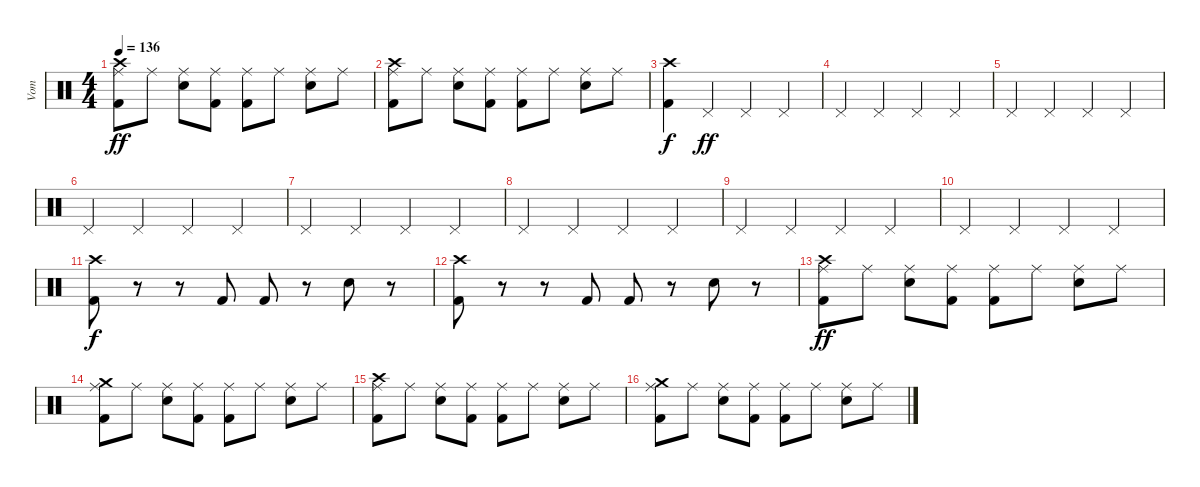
\track ("Vom" "Vom") {instrument percussion}
\staff {score}
\articulation defaults
\ts (4 4)
\tempo 136
\clef neutral
\ks c
("Ride (middle)" "Kick (hit) 2" "Crash high (hit)").8{dy ff} "Ride (middle)".8 ("Ride (middle)" "Snare (hit) 2").8 ("Ride (middle)" "Kick (hit) 2").8 ("Ride (middle)" "Kick (hit) 2").8 "Ride (middle)".8 ("Ride (middle)" "Snare (hit) 2").8 "Ride (middle)".8 |
("Ride (middle)" "Kick (hit) 2" "Crash high (hit)").8 "Ride (middle)".8 ("Ride (middle)" "Snare (hit) 2").8 ("Ride (middle)" "Kick (hit) 2").8 ("Ride (middle)" "Kick (hit) 2").8 "Ride (middle)".8 ("Ride (middle)" "Snare (hit) 2").8 "Ride (middle)".8 |
("Kick (hit) 2" "Crash high (hit)").4{dy f} "Pedal Hi-Hat (hit)".4{dy ff} "Pedal Hi-Hat (hit)".4 "Pedal Hi-Hat (hit)".4 |
"Pedal Hi-Hat (hit)".4 "Pedal Hi-Hat (hit)".4 "Pedal Hi-Hat (hit)".4 "Pedal Hi-Hat (hit)".4 |
"Pedal Hi-Hat (hit)".4 "Pedal Hi-Hat (hit)".4 "Pedal Hi-Hat (hit)".4 "Pedal Hi-Hat (hit)".4 |
"Pedal Hi-Hat (hit)".4 "Pedal Hi-Hat (hit)".4 "Pedal Hi-Hat (hit)".4 "Pedal Hi-Hat (hit)".4 |
"Pedal Hi-Hat (hit)".4 "Pedal Hi-Hat (hit)".4 "Pedal Hi-Hat (hit)".4 "Pedal Hi-Hat (hit)".4 |
"Pedal Hi-Hat (hit)".4 "Pedal Hi-Hat (hit)".4 "Pedal Hi-Hat (hit)".4 "Pedal Hi-Hat (hit)".4 |
"Pedal Hi-Hat (hit)".4 "Pedal Hi-Hat (hit)".4 "Pedal Hi-Hat (hit)".4 "Pedal Hi-Hat (hit)".4 |
"Pedal Hi-Hat (hit)".4 "Pedal Hi-Hat (hit)".4 "Pedal Hi-Hat (hit)".4 "Pedal Hi-Hat (hit)".4 |
("Kick (hit) 2" "Crash high (hit)").8{dy f} r.8 r.8 "Kick (hit) 2".8 "Kick (hit) 2".8 r.8 "Snare (hit) 2".8 r.8 |
("Kick (hit) 2" "Crash high (hit)").8 r.8 r.8 "Kick (hit) 2".8 "Kick (hit) 2".8 r.8 "Snare (hit) 2".8 r.8 |
("Ride (middle)" "Kick (hit) 2" "Crash high (hit)").8{dy ff} "Ride (middle)".8 ("Ride (middle)" "Snare (hit) 2").8 ("Ride (middle)" "Kick (hit) 2").8 ("Ride (middle)" "Kick (hit) 2").8 "Ride (middle)".8 ("Ride (middle)" "Snare (hit) 2").8 "Ride (middle)".8 |
("Ride (middle)" "Kick (hit) 2" "Crash medium (hit)").8 "Ride (middle)".8 ("Ride (middle)" "Snare (hit) 2").8 ("Ride (middle)" "Kick (hit) 2").8 ("Ride (middle)" "Kick (hit) 2").8 "Ride (middle)".8 ("Ride (middle)" "Snare (hit) 2").8 "Ride (middle)".8 |
("Ride (middle)" "Kick (hit) 2" "Crash high (hit)").8 "Ride (middle)".8 ("Ride (middle)" "Snare (hit) 2").8 ("Ride (middle)" "Kick (hit) 2").8 ("Ride (middle)" "Kick (hit) 2").8 "Ride (middle)".8 ("Ride (middle)" "Snare (hit) 2").8 "Ride (middle)".8 |
("Ride (middle)" "Kick (hit) 2" "Crash medium (hit)").8 "Ride (middle)".8 ("Ride (middle)" "Snare (hit) 2").8 ("Ride (middle)" "Kick (hit) 2").8 ("Ride (middle)" "Kick (hit) 2").8 "Ride (middle)".8 ("Ride (middle)" "Snare (hit) 2").8 "Ride (middle)".8
